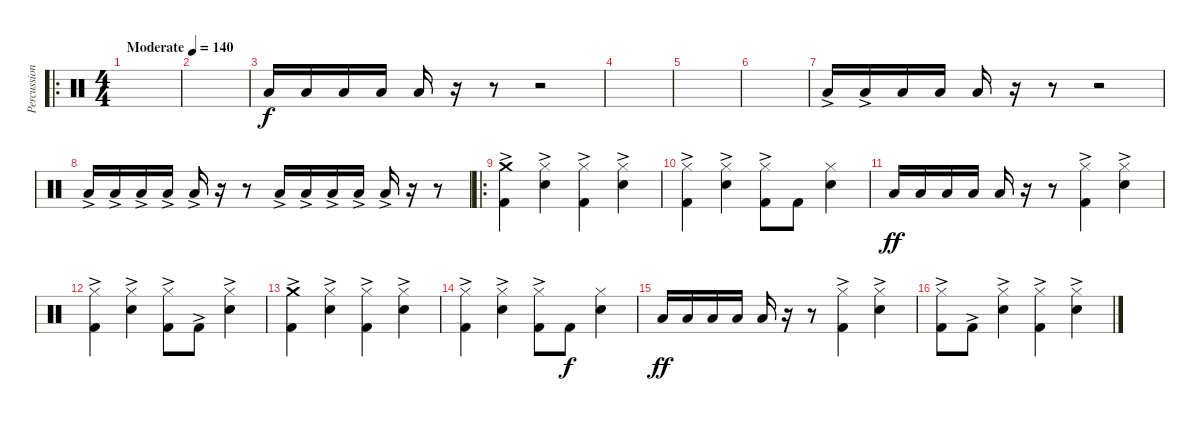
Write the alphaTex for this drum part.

\track ("Percussion" "Percussion") {instrument percussion}
\staff {score}
\articulation defaults
\ro
\ts (4 4)
\tempo (140 "Moderate")
\clef neutral
\ks c
|
|
"Low Floor Tom (hit)".16 "Low Floor Tom (hit)".16 "Low Floor Tom (hit)".16 "Low Floor Tom (hit)".16 "Low Floor Tom (hit)".16 r.16 r.8 r.2 |
|
|
|
"Low Floor Tom (hit)"{ac}.16 "Low Floor Tom (hit)"{ac}.16 "Low Floor Tom (hit)".16 "Low Floor Tom (hit)".16 "Low Floor Tom (hit)".16 r.16 r.8 r.2 |
"Low Floor Tom (hit)"{ac}.16 "Low Floor Tom (hit)"{ac}.16 "Low Floor Tom (hit)"{ac}.16 "Low Floor Tom (hit)"{ac}.16 "Low Floor Tom (hit)"{ac}.16 r.16 r.8 "Low Floor Tom (hit)"{ac}.16 "Low Floor Tom (hit)"{ac}.16 "Low Floor Tom (hit)"{ac}.16 "Low Floor Tom (hit)"{ac}.16 "Low Floor Tom (hit)"{ac}.16 r.16 r.8 |
\ro
("Crash medium (hit)" "Kick (hit) 2"{ac}).4 ("Hi-Hat (closed)" "Snare (hit) 2"{ac}).4 ("Hi-Hat (closed)" "Kick (hit) 2"{ac}).4 ("Hi-Hat (closed)" "Snare (hit) 2"{ac}).4 |
("Hi-Hat (closed)" "Kick (hit) 2"{ac}).4 ("Hi-Hat (closed)" "Snare (hit) 2"{ac}).4 ("Hi-Hat (closed)" "Kick (hit) 2"{ac}).8 "Kick (hit) 2".8{dy f} ("Hi-Hat (closed)" "Snare (hit) 2").4 |
"Low Floor Tom (hit)".16{dy ff} "Low Floor Tom (hit)".16 "Low Floor Tom (hit)".16 "Low Floor Tom (hit)".16 "Low Floor Tom (hit)".16 r.16 r.8 ("Hi-Hat (closed)" "Kick (hit) 2"{ac}).4 ("Hi-Hat (closed)" "Snare (hit) 2"{ac}).4 |
("Hi-Hat (closed)" "Kick (hit) 2"{ac}).4 ("Hi-Hat (closed)" "Snare (hit) 2"{ac}).4 ("Hi-Hat (closed)" "Kick (hit) 2"{ac}).8 "Kick (hit) 2"{ac}.8 ("Hi-Hat (closed)" "Snare (hit) 2"{ac}).4 |
("Crash medium (hit)" "Kick (hit) 2"{ac}).4 ("Hi-Hat (closed)" "Snare (hit) 2"{ac}).4 ("Hi-Hat (closed)" "Kick (hit) 2"{ac}).4 ("Hi-Hat (closed)" "Snare (hit) 2"{ac}).4 |
("Hi-Hat (closed)" "Kick (hit) 2"{ac}).4 ("Hi-Hat (closed)" "Snare (hit) 2"{ac}).4 ("Hi-Hat (closed)" "Kick (hit) 2"{ac}).8 "Kick (hit) 2".8{dy f} ("Hi-Hat (closed)" "Snare (hit) 2").4 |
"Low Floor Tom (hit)".16{dy ff} "Low Floor Tom (hit)".16 "Low Floor Tom (hit)".16 "Low Floor Tom (hit)".16 "Low Floor Tom (hit)".16 r.16 r.8 ("Hi-Hat (closed)" "Kick (hit) 2"{ac}).4 ("Hi-Hat (closed)" "Snare (hit) 2"{ac}).4 |
("Hi-Hat (closed)" "Kick (hit) 2"{ac}).8 "Kick (hit) 2"{ac}.8 ("Hi-Hat (closed)" "Snare (hit) 2"{ac}).4 ("Hi-Hat (closed)" "Kick (hit) 2"{ac}).4 ("Hi-Hat (closed)" "Snare (hit) 2"{ac}).4
